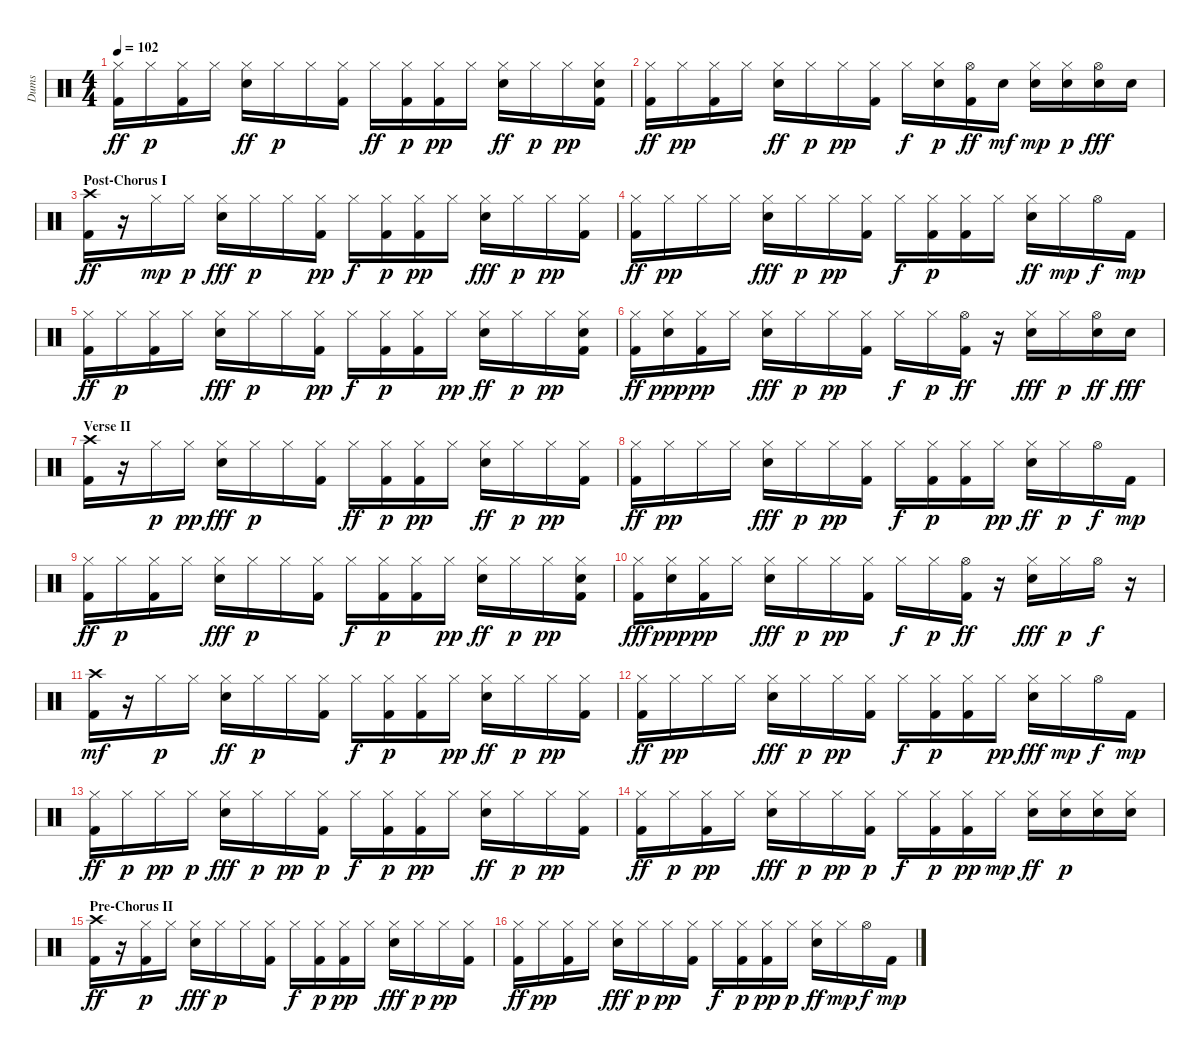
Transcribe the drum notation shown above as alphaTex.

\track ("Dums" "Dums") {instrument percussion}
\staff {score}
\articulation defaults
\ts (4 4)
\tempo 102
\clef neutral
\ks c
("Kick (hit) 2" "Hi-Hat (closed)").16{dy ff} "Hi-Hat (closed)".16{dy p} ("Kick (hit) 2" "Hi-Hat (closed)").16 "Hi-Hat (closed)".16 ("Electric Snare (hit)" "Hi-Hat (closed)").16{dy ff} "Hi-Hat (closed)".16{dy p} "Hi-Hat (closed)".16 ("Kick (hit) 2" "Hi-Hat (closed)").16 "Hi-Hat (closed)".16{dy ff} ("Kick (hit) 2" "Hi-Hat (closed)").16{dy p} ("Kick (hit) 2" "Hi-Hat (closed)").16{dy pp} "Hi-Hat (closed)".16 ("Electric Snare (hit)" "Hi-Hat (closed)").16{dy ff} "Hi-Hat (closed)".16{dy p} "Hi-Hat (closed)".16{dy pp} ("Kick (hit) 2" "Electric Snare (hit)" "Hi-Hat (closed)").16 |
("Kick (hit) 2" "Hi-Hat (closed)").16{dy ff} "Hi-Hat (closed)".16{dy pp} ("Kick (hit) 2" "Hi-Hat (closed)").16 "Hi-Hat (closed)".16 ("Electric Snare (hit)" "Hi-Hat (closed)").16{dy ff} "Hi-Hat (closed)".16{dy p} "Hi-Hat (closed)".16{dy pp} ("Kick (hit) 2" "Hi-Hat (closed)").16 "Hi-Hat (closed)".16{dy f} ("Electric Snare (hit)" "Hi-Hat (closed)").16{dy p} ("Kick (hit) 2" "Hi-Hat (open)").16{dy ff} "Electric Snare (hit)".16{dy mf} ("Electric Snare (hit)" "Hi-Hat (closed)").16{dy mp} ("Electric Snare (hit)" "Hi-Hat (closed)").16{dy p} ("Electric Snare (hit)" "Hi-Hat (open)").16{dy fff} "Electric Snare (hit)".16 |
\section ("" "Post-Chorus I")
("Kick (hit) 2" "Crash high (hit)").16{dy ff} r.16 "Hi-Hat (closed)".16{dy mp} "Hi-Hat (closed)".16{dy p} ("Electric Snare (hit)" "Hi-Hat (closed)").16{dy fff} "Hi-Hat (closed)".16{dy p} "Hi-Hat (closed)".16 ("Kick (hit) 2" "Hi-Hat (closed)").16{dy pp} "Hi-Hat (closed)".16{dy f} ("Kick (hit) 2" "Hi-Hat (closed)").16{dy p} ("Kick (hit) 2" "Hi-Hat (closed)").16{dy pp} "Hi-Hat (closed)".16 ("Electric Snare (hit)" "Hi-Hat (closed)").16{dy fff} "Hi-Hat (closed)".16{dy p} "Hi-Hat (closed)".16{dy pp} ("Kick (hit) 2" "Hi-Hat (closed)").16 |
("Kick (hit) 2" "Hi-Hat (closed)").16{dy ff} "Hi-Hat (closed)".16{dy pp} "Hi-Hat (closed)".16 "Hi-Hat (closed)".16 ("Electric Snare (hit)" "Hi-Hat (closed)").16{dy fff} "Hi-Hat (closed)".16{dy p} "Hi-Hat (closed)".16{dy pp} ("Kick (hit) 2" "Hi-Hat (closed)").16 "Hi-Hat (closed)".16{dy f} ("Kick (hit) 2" "Hi-Hat (closed)").16{dy p} ("Kick (hit) 2" "Hi-Hat (closed)").16 "Hi-Hat (closed)".16 ("Electric Snare (hit)" "Hi-Hat (closed)").16{dy ff} "Hi-Hat (closed)".16{dy mp} "Hi-Hat (open)".16{dy f} "Kick (hit) 2".16{dy mp} |
("Kick (hit) 2" "Hi-Hat (closed)").16{dy ff} "Hi-Hat (closed)".16{dy p} ("Kick (hit) 2" "Hi-Hat (closed)").16 "Hi-Hat (closed)".16 ("Electric Snare (hit)" "Hi-Hat (closed)").16{dy fff} "Hi-Hat (closed)".16{dy p} "Hi-Hat (closed)".16 ("Kick (hit) 2" "Hi-Hat (closed)").16{dy pp} "Hi-Hat (closed)".16{dy f} ("Kick (hit) 2" "Hi-Hat (closed)").16{dy p} ("Kick (hit) 2" "Hi-Hat (closed)").16 "Hi-Hat (closed)".16{dy pp} ("Electric Snare (hit)" "Hi-Hat (closed)").16{dy ff} "Hi-Hat (closed)".16{dy p} "Hi-Hat (closed)".16{dy pp} ("Kick (hit) 2" "Electric Snare (hit)" "Hi-Hat (closed)").16 |
("Kick (hit) 2" "Hi-Hat (closed)").16{dy ff} ("Electric Snare (hit)" "Hi-Hat (closed)").16{dy ppp} ("Kick (hit) 2" "Hi-Hat (closed)").16{dy pp} "Hi-Hat (closed)".16 ("Electric Snare (hit)" "Hi-Hat (closed)").16{dy fff} "Hi-Hat (closed)".16{dy p} "Hi-Hat (closed)".16{dy pp} ("Kick (hit) 2" "Hi-Hat (closed)").16 "Hi-Hat (closed)".16{dy f} "Hi-Hat (closed)".16{dy p} ("Kick (hit) 2" "Hi-Hat (open)").16{dy ff} r.16 ("Electric Snare (hit)" "Hi-Hat (closed)").16{dy fff} "Hi-Hat (closed)".16{dy p} ("Electric Snare (hit)" "Hi-Hat (open)").16{dy ff} "Electric Snare (hit)".16{dy fff} |
\section ("" "Verse II")
("Kick (hit) 2" "Crash high (hit)").16 r.16 "Hi-Hat (closed)".16{dy p} "Hi-Hat (closed)".16{dy pp} ("Electric Snare (hit)" "Hi-Hat (closed)").16{dy fff} "Hi-Hat (closed)".16{dy p} "Hi-Hat (closed)".16 ("Kick (hit) 2" "Hi-Hat (closed)").16 "Hi-Hat (closed)".16{dy ff} ("Kick (hit) 2" "Hi-Hat (closed)").16{dy p} ("Kick (hit) 2" "Hi-Hat (closed)").16{dy pp} "Hi-Hat (closed)".16 ("Electric Snare (hit)" "Hi-Hat (closed)").16{dy ff} "Hi-Hat (closed)".16{dy p} "Hi-Hat (closed)".16{dy pp} ("Kick (hit) 2" "Hi-Hat (closed)").16 |
("Kick (hit) 2" "Hi-Hat (closed)").16{dy ff} "Hi-Hat (closed)".16{dy pp} "Hi-Hat (closed)".16 "Hi-Hat (closed)".16 ("Electric Snare (hit)" "Hi-Hat (closed)").16{dy fff} "Hi-Hat (closed)".16{dy p} "Hi-Hat (closed)".16{dy pp} ("Kick (hit) 2" "Hi-Hat (closed)").16 "Hi-Hat (closed)".16{dy f} ("Kick (hit) 2" "Hi-Hat (closed)").16{dy p} ("Kick (hit) 2" "Hi-Hat (closed)").16 "Hi-Hat (closed)".16{dy pp} ("Electric Snare (hit)" "Hi-Hat (closed)").16{dy ff} "Hi-Hat (closed)".16{dy p} "Hi-Hat (open)".16{dy f} "Kick (hit) 2".16{dy mp} |
("Kick (hit) 2" "Hi-Hat (closed)").16{dy ff} "Hi-Hat (closed)".16{dy p} ("Kick (hit) 2" "Hi-Hat (closed)").16 "Hi-Hat (closed)".16 ("Electric Snare (hit)" "Hi-Hat (closed)").16{dy fff} "Hi-Hat (closed)".16{dy p} "Hi-Hat (closed)".16 ("Kick (hit) 2" "Hi-Hat (closed)").16 "Hi-Hat (closed)".16{dy f} ("Kick (hit) 2" "Hi-Hat (closed)").16{dy p} ("Kick (hit) 2" "Hi-Hat (closed)").16 "Hi-Hat (closed)".16{dy pp} ("Electric Snare (hit)" "Hi-Hat (closed)").16{dy ff} "Hi-Hat (closed)".16{dy p} "Hi-Hat (closed)".16{dy pp} ("Kick (hit) 2" "Electric Snare (hit)" "Hi-Hat (closed)").16 |
("Kick (hit) 2" "Hi-Hat (closed)").16{dy fff} ("Electric Snare (hit)" "Hi-Hat (closed)").16{dy ppp} ("Kick (hit) 2" "Hi-Hat (closed)").16{dy pp} "Hi-Hat (closed)".16 ("Electric Snare (hit)" "Hi-Hat (closed)").16{dy fff} "Hi-Hat (closed)".16{dy p} "Hi-Hat (closed)".16{dy pp} ("Kick (hit) 2" "Hi-Hat (closed)").16 "Hi-Hat (closed)".16{dy f} "Hi-Hat (closed)".16{dy p} ("Kick (hit) 2" "Hi-Hat (open)").16{dy ff} r.16 ("Electric Snare (hit)" "Hi-Hat (closed)").16{dy fff} "Hi-Hat (closed)".16{dy p} "Hi-Hat (open)".16{dy f} r.16 |
("Kick (hit) 2" "Crash high (hit)").16{dy mf} r.16 "Hi-Hat (closed)".16{dy p} "Hi-Hat (closed)".16 ("Electric Snare (hit)" "Hi-Hat (closed)").16{dy ff} "Hi-Hat (closed)".16{dy p} "Hi-Hat (closed)".16 ("Kick (hit) 2" "Hi-Hat (closed)").16 "Hi-Hat (closed)".16{dy f} ("Kick (hit) 2" "Hi-Hat (closed)").16{dy p} ("Kick (hit) 2" "Hi-Hat (closed)").16 "Hi-Hat (closed)".16{dy pp} ("Electric Snare (hit)" "Hi-Hat (closed)").16{dy ff} "Hi-Hat (closed)".16{dy p} "Hi-Hat (closed)".16{dy pp} ("Kick (hit) 2" "Hi-Hat (closed)").16 |
("Kick (hit) 2" "Hi-Hat (closed)").16{dy ff} "Hi-Hat (closed)".16{dy pp} "Hi-Hat (closed)".16 "Hi-Hat (closed)".16 ("Electric Snare (hit)" "Hi-Hat (closed)").16{dy fff} "Hi-Hat (closed)".16{dy p} "Hi-Hat (closed)".16{dy pp} ("Kick (hit) 2" "Hi-Hat (closed)").16 "Hi-Hat (closed)".16{dy f} ("Kick (hit) 2" "Hi-Hat (closed)").16{dy p} ("Kick (hit) 2" "Hi-Hat (closed)").16 "Hi-Hat (closed)".16{dy pp} ("Electric Snare (hit)" "Hi-Hat (closed)").16{dy fff} "Hi-Hat (closed)".16{dy mp} "Hi-Hat (open)".16{dy f} "Kick (hit) 2".16{dy mp} |
("Kick (hit) 2" "Hi-Hat (closed)").16{dy ff} "Hi-Hat (closed)".16{dy p} "Hi-Hat (closed)".16{dy pp} "Hi-Hat (closed)".16{dy p} ("Electric Snare (hit)" "Hi-Hat (closed)").16{dy fff} "Hi-Hat (closed)".16{dy p} "Hi-Hat (closed)".16{dy pp} ("Kick (hit) 2" "Hi-Hat (closed)").16{dy p} "Hi-Hat (closed)".16{dy f} ("Kick (hit) 2" "Hi-Hat (closed)").16{dy p} ("Kick (hit) 2" "Hi-Hat (closed)").16{dy pp} "Hi-Hat (closed)".16 ("Electric Snare (hit)" "Hi-Hat (closed)").16{dy ff} "Hi-Hat (closed)".16{dy p} "Hi-Hat (closed)".16{dy pp} ("Kick (hit) 2" "Hi-Hat (closed)").16 |
("Kick (hit) 2" "Hi-Hat (closed)").16{dy ff} "Hi-Hat (closed)".16{dy p} ("Kick (hit) 2" "Hi-Hat (closed)").16{dy pp} "Hi-Hat (closed)".16 ("Electric Snare (hit)" "Hi-Hat (closed)").16{dy fff} "Hi-Hat (closed)".16{dy p} "Hi-Hat (closed)".16{dy pp} ("Kick (hit) 2" "Hi-Hat (closed)").16{dy p} "Hi-Hat (closed)".16{dy f} ("Kick (hit) 2" "Hi-Hat (closed)").16{dy p} ("Kick (hit) 2" "Hi-Hat (closed)").16{dy pp} "Hi-Hat (closed)".16{dy mp} ("Electric Snare (hit)" "Hi-Hat (closed)").16{dy ff} ("Electric Snare (hit)" "Hi-Hat (closed)").16{dy p} ("Electric Snare (hit)" "Hi-Hat (closed)").16 ("Electric Snare (hit)" "Hi-Hat (closed)").16 |
\section ("" "Pre-Chorus II")
("Kick (hit) 2" "Crash high (hit)").16{dy ff} r.16 ("Kick (hit) 2" "Hi-Hat (closed)").16{dy p} "Hi-Hat (closed)".16 ("Electric Snare (hit)" "Hi-Hat (closed)").16{dy fff} "Hi-Hat (closed)".16{dy p} "Hi-Hat (closed)".16 ("Kick (hit) 2" "Hi-Hat (closed)").16 "Hi-Hat (closed)".16{dy f} ("Kick (hit) 2" "Hi-Hat (closed)").16{dy p} ("Kick (hit) 2" "Hi-Hat (closed)").16{dy pp} "Hi-Hat (closed)".16 ("Electric Snare (hit)" "Hi-Hat (closed)").16{dy fff} "Hi-Hat (closed)".16{dy p} "Hi-Hat (closed)".16{dy pp} ("Kick (hit) 2" "Hi-Hat (closed)").16 |
("Kick (hit) 2" "Hi-Hat (closed)").16{dy ff} "Hi-Hat (closed)".16{dy pp} ("Kick (hit) 2" "Hi-Hat (closed)").16 "Hi-Hat (closed)".16 ("Electric Snare (hit)" "Hi-Hat (closed)").16{dy fff} "Hi-Hat (closed)".16{dy p} "Hi-Hat (closed)".16{dy pp} ("Kick (hit) 2" "Hi-Hat (closed)").16 "Hi-Hat (closed)".16{dy f} ("Kick (hit) 2" "Hi-Hat (closed)").16{dy p} ("Kick (hit) 2" "Hi-Hat (closed)").16{dy pp} "Hi-Hat (closed)".16{dy p} ("Electric Snare (hit)" "Hi-Hat (closed)").16{dy ff} "Hi-Hat (closed)".16{dy mp} "Hi-Hat (open)".16{dy f} "Kick (hit) 2".16{dy mp}
